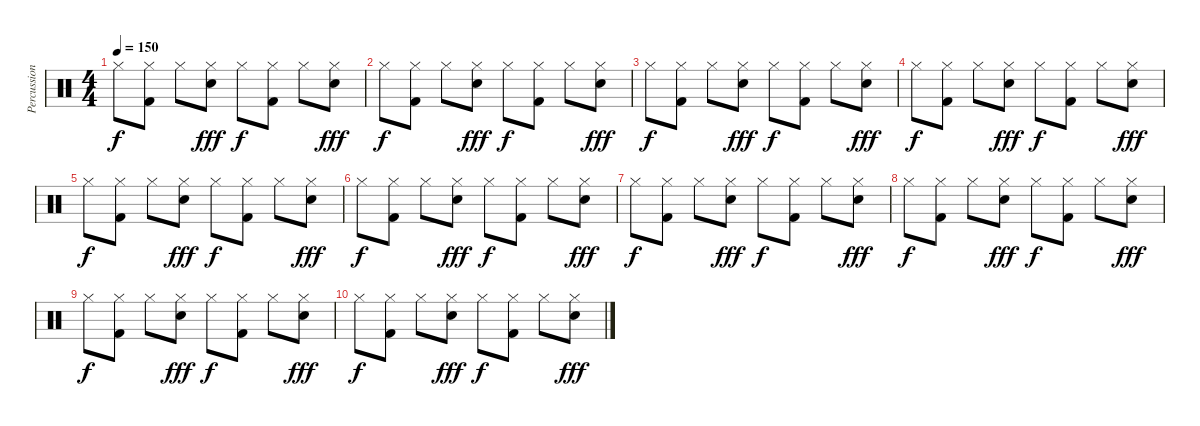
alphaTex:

\track ("Percussion" "Percussion") {instrument percussion}
\staff {score}
\articulation defaults
\ts (4 4)
\tempo 150
\clef neutral
\ks c "Hi-Hat (closed)".8{dy f}
("Hi-Hat (closed)" "Kick (hit) 2").8 "Hi-Hat (closed)".8 ("Hi-Hat (closed)" "Electric Snare (hit)").8{dy fff} "Hi-Hat (closed)".8{dy f} ("Hi-Hat (closed)" "Kick (hit) 2").8 "Hi-Hat (closed)".8 ("Hi-Hat (closed)" "Electric Snare (hit)").8{dy fff} |
"Hi-Hat (closed)".8{dy f} ("Hi-Hat (closed)" "Kick (hit) 2").8 "Hi-Hat (closed)".8 ("Hi-Hat (closed)" "Electric Snare (hit)").8{dy fff} "Hi-Hat (closed)".8{dy f} ("Hi-Hat (closed)" "Kick (hit) 2").8 "Hi-Hat (closed)".8 ("Hi-Hat (closed)" "Electric Snare (hit)").8{dy fff} |
"Hi-Hat (closed)".8{dy f} ("Hi-Hat (closed)" "Kick (hit) 2").8 "Hi-Hat (closed)".8 ("Hi-Hat (closed)" "Electric Snare (hit)").8{dy fff} "Hi-Hat (closed)".8{dy f} ("Hi-Hat (closed)" "Kick (hit) 2").8 "Hi-Hat (closed)".8 ("Hi-Hat (closed)" "Electric Snare (hit)").8{dy fff} |
"Hi-Hat (closed)".8{dy f} ("Hi-Hat (closed)" "Kick (hit) 2").8 "Hi-Hat (closed)".8 ("Hi-Hat (closed)" "Electric Snare (hit)").8{dy fff} "Hi-Hat (closed)".8{dy f} ("Hi-Hat (closed)" "Kick (hit) 2").8 "Hi-Hat (closed)".8 ("Hi-Hat (closed)" "Electric Snare (hit)").8{dy fff} |
"Hi-Hat (closed)".8{dy f} ("Hi-Hat (closed)" "Kick (hit) 2").8 "Hi-Hat (closed)".8 ("Hi-Hat (closed)" "Electric Snare (hit)").8{dy fff} "Hi-Hat (closed)".8{dy f} ("Hi-Hat (closed)" "Kick (hit) 2").8 "Hi-Hat (closed)".8 ("Hi-Hat (closed)" "Electric Snare (hit)").8{dy fff} |
"Hi-Hat (closed)".8{dy f} ("Hi-Hat (closed)" "Kick (hit) 2").8 "Hi-Hat (closed)".8 ("Hi-Hat (closed)" "Electric Snare (hit)").8{dy fff} "Hi-Hat (closed)".8{dy f} ("Hi-Hat (closed)" "Kick (hit) 2").8 "Hi-Hat (closed)".8 ("Hi-Hat (closed)" "Electric Snare (hit)").8{dy fff} |
"Hi-Hat (closed)".8{dy f} ("Hi-Hat (closed)" "Kick (hit) 2").8 "Hi-Hat (closed)".8 ("Hi-Hat (closed)" "Electric Snare (hit)").8{dy fff} "Hi-Hat (closed)".8{dy f} ("Hi-Hat (closed)" "Kick (hit) 2").8 "Hi-Hat (closed)".8 ("Hi-Hat (closed)" "Electric Snare (hit)").8{dy fff} |
"Hi-Hat (closed)".8{dy f} ("Hi-Hat (closed)" "Kick (hit) 2").8 "Hi-Hat (closed)".8 ("Hi-Hat (closed)" "Electric Snare (hit)").8{dy fff} "Hi-Hat (closed)".8{dy f} ("Hi-Hat (closed)" "Kick (hit) 2").8 "Hi-Hat (closed)".8 ("Hi-Hat (closed)" "Electric Snare (hit)").8{dy fff} |
"Hi-Hat (closed)".8{dy f} ("Hi-Hat (closed)" "Kick (hit) 2").8 "Hi-Hat (closed)".8 ("Hi-Hat (closed)" "Electric Snare (hit)").8{dy fff} "Hi-Hat (closed)".8{dy f} ("Hi-Hat (closed)" "Kick (hit) 2").8 "Hi-Hat (closed)".8 ("Hi-Hat (closed)" "Electric Snare (hit)").8{dy fff} |
"Hi-Hat (closed)".8{dy f} ("Hi-Hat (closed)" "Kick (hit) 2").8 "Hi-Hat (closed)".8 ("Hi-Hat (closed)" "Electric Snare (hit)").8{dy fff} "Hi-Hat (closed)".8{dy f} ("Hi-Hat (closed)" "Kick (hit) 2").8 "Hi-Hat (closed)".8 ("Hi-Hat (closed)" "Electric Snare (hit)").8{dy fff}
